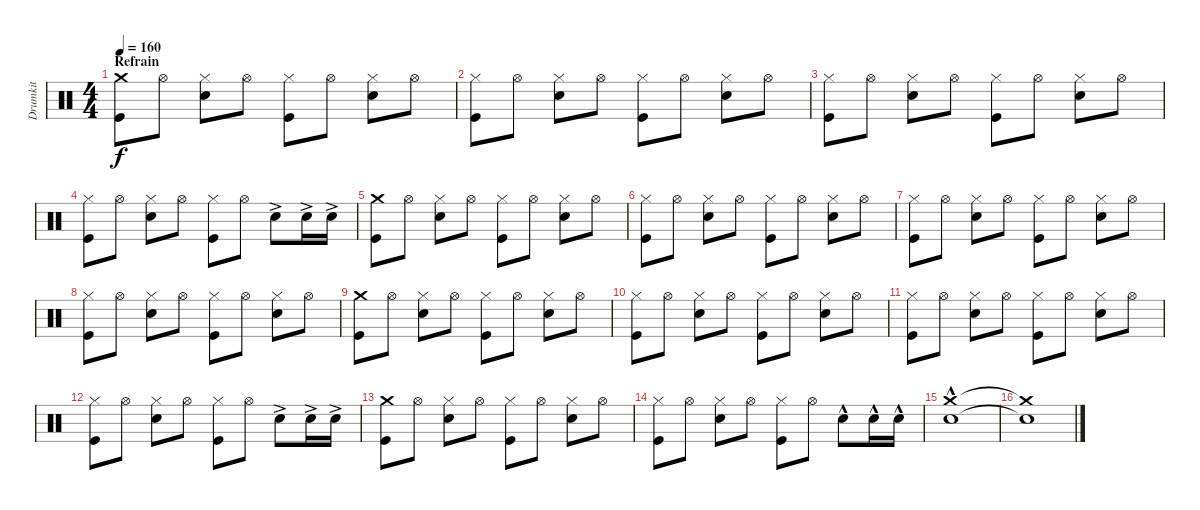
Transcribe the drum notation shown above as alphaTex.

\track ("Drumkit" "Drumkit") {instrument percussion}
\staff {score}
\articulation defaults
\ts (4 4)
\section ("" "Refrain")
\tempo 160
\clef neutral
\ks c
("Crash medium (hit)" "Kick (hit)").8{dy f} "Hi-Hat (open)".8 ("Snare (hit) 2" "Hi-Hat (closed)").8 "Hi-Hat (open)".8 ("Kick (hit)" "Hi-Hat (closed)").8 "Hi-Hat (open)".8 ("Snare (hit) 2" "Hi-Hat (closed)").8 "Hi-Hat (open)".8 |
("Hi-Hat (closed)" "Kick (hit)").8 "Hi-Hat (open)".8 ("Hi-Hat (closed)" "Snare (hit) 2").8 "Hi-Hat (open)".8 ("Hi-Hat (closed)" "Kick (hit)").8 "Hi-Hat (open)".8 ("Hi-Hat (closed)" "Snare (hit) 2").8 "Hi-Hat (open)".8 |
("Hi-Hat (closed)" "Kick (hit)").8 "Hi-Hat (open)".8 ("Hi-Hat (closed)" "Snare (hit) 2").8 "Hi-Hat (open)".8 ("Hi-Hat (closed)" "Kick (hit)").8 "Hi-Hat (open)".8 ("Hi-Hat (closed)" "Snare (hit) 2").8 "Hi-Hat (open)".8 |
("Hi-Hat (closed)" "Kick (hit)").8 "Hi-Hat (open)".8 ("Hi-Hat (closed)" "Snare (hit) 2").8 "Hi-Hat (open)".8 ("Hi-Hat (closed)" "Kick (hit)").8 "Hi-Hat (open)".8 "Snare (hit) 2"{ac}.8 "Snare (hit) 2"{ac}.16 "Snare (hit) 2"{ac}.16 |
("Crash medium (hit)" "Kick (hit)").8 "Hi-Hat (open)".8 ("Snare (hit) 2" "Hi-Hat (closed)").8 "Hi-Hat (open)".8 ("Kick (hit)" "Hi-Hat (closed)").8 "Hi-Hat (open)".8 ("Snare (hit) 2" "Hi-Hat (closed)").8 "Hi-Hat (open)".8 |
("Hi-Hat (closed)" "Kick (hit)").8 "Hi-Hat (open)".8 ("Hi-Hat (closed)" "Snare (hit) 2").8 "Hi-Hat (open)".8 ("Hi-Hat (closed)" "Kick (hit)").8 "Hi-Hat (open)".8 ("Hi-Hat (closed)" "Snare (hit) 2").8 "Hi-Hat (open)".8 |
("Hi-Hat (closed)" "Kick (hit)").8 "Hi-Hat (open)".8 ("Hi-Hat (closed)" "Snare (hit) 2").8 "Hi-Hat (open)".8 ("Hi-Hat (closed)" "Kick (hit)").8 "Hi-Hat (open)".8 ("Hi-Hat (closed)" "Snare (hit) 2").8 "Hi-Hat (open)".8 |
("Hi-Hat (closed)" "Kick (hit)").8 "Hi-Hat (open)".8 ("Hi-Hat (closed)" "Snare (hit) 2").8 "Hi-Hat (open)".8 ("Hi-Hat (closed)" "Kick (hit)").8 "Hi-Hat (open)".8 ("Hi-Hat (closed)" "Snare (hit) 2").8 "Hi-Hat (open)".8 |
("Crash medium (hit)" "Kick (hit)").8 "Hi-Hat (open)".8 ("Snare (hit) 2" "Hi-Hat (closed)").8 "Hi-Hat (open)".8 ("Kick (hit)" "Hi-Hat (closed)").8 "Hi-Hat (open)".8 ("Snare (hit) 2" "Hi-Hat (closed)").8 "Hi-Hat (open)".8 |
("Hi-Hat (closed)" "Kick (hit)").8 "Hi-Hat (open)".8 ("Hi-Hat (closed)" "Snare (hit) 2").8 "Hi-Hat (open)".8 ("Hi-Hat (closed)" "Kick (hit)").8 "Hi-Hat (open)".8 ("Hi-Hat (closed)" "Snare (hit) 2").8 "Hi-Hat (open)".8 |
("Hi-Hat (closed)" "Kick (hit)").8 "Hi-Hat (open)".8 ("Hi-Hat (closed)" "Snare (hit) 2").8 "Hi-Hat (open)".8 ("Hi-Hat (closed)" "Kick (hit)").8 "Hi-Hat (open)".8 ("Hi-Hat (closed)" "Snare (hit) 2").8 "Hi-Hat (open)".8 |
("Hi-Hat (closed)" "Kick (hit)").8 "Hi-Hat (open)".8 ("Hi-Hat (closed)" "Snare (hit) 2").8 "Hi-Hat (open)".8 ("Hi-Hat (closed)" "Kick (hit)").8 "Hi-Hat (open)".8 "Snare (hit) 2"{ac}.8 "Snare (hit) 2"{ac}.16 "Snare (hit) 2"{ac}.16 |
("Crash medium (hit)" "Kick (hit)").8 "Hi-Hat (open)".8 ("Snare (hit) 2" "Hi-Hat (closed)").8 "Hi-Hat (open)".8 ("Kick (hit)" "Hi-Hat (closed)").8 "Hi-Hat (open)".8 ("Snare (hit) 2" "Hi-Hat (closed)").8 "Hi-Hat (open)".8 |
("Hi-Hat (closed)" "Kick (hit)").8 "Hi-Hat (open)".8 ("Hi-Hat (closed)" "Snare (hit) 2").8 "Hi-Hat (open)".8 ("Hi-Hat (closed)" "Kick (hit)").8 "Hi-Hat (open)".8 "Snare (hit) 2"{hac}.8 "Snare (hit) 2"{hac}.16 "Snare (hit) 2"{hac}.16 |
("Snare (hit) 2"{hac} "Crash medium (hit)").1 |
("Snare (hit) 2"{t} "Crash medium (hit)"{t}).1
